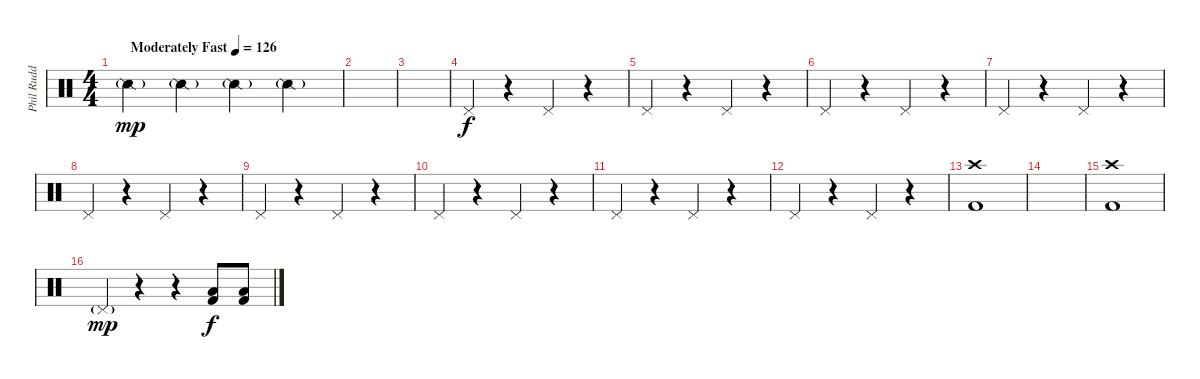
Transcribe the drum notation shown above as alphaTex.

\track ("Phil Rudd" "Phil Rudd") {instrument percussion}
\staff {score}
\articulation defaults
\ts (4 4)
\tempo (126 "Moderately Fast")
\clef neutral
\ks c "Snare (side stick) 2"{g}.4{dy mp} "Snare (side stick) 2"{g}.4 "Snare (side stick) 2"{g}.4 "Snare (side stick) 2"{g}.4
|
|
|
"Pedal Hi-Hat (hit)".4{dy f} r.4 "Pedal Hi-Hat (hit)".4 r.4 |
"Pedal Hi-Hat (hit)".4 r.4 "Pedal Hi-Hat (hit)".4 r.4 |
"Pedal Hi-Hat (hit)".4 r.4 "Pedal Hi-Hat (hit)".4 r.4 |
"Pedal Hi-Hat (hit)".4 r.4 "Pedal Hi-Hat (hit)".4 r.4 |
"Pedal Hi-Hat (hit)".4 r.4 "Pedal Hi-Hat (hit)".4 r.4 |
"Pedal Hi-Hat (hit)".4 r.4 "Pedal Hi-Hat (hit)".4 r.4 |
"Pedal Hi-Hat (hit)".4 r.4 "Pedal Hi-Hat (hit)".4 r.4 |
"Pedal Hi-Hat (hit)".4 r.4 "Pedal Hi-Hat (hit)".4 r.4 |
"Pedal Hi-Hat (hit)".4 r.4 "Pedal Hi-Hat (hit)".4 r.4 |
("Crash high (hit)" "Kick (hit) 2").1 |
|
("Crash high (hit)" "Kick (hit) 2").1 |
"Pedal Hi-Hat (hit)"{g}.4{dy mp} r.4 r.4 ("Low Tom (hit)" "Kick (hit) 2").8{dy f} ("Low Tom (hit)" "Kick (hit) 2").8
